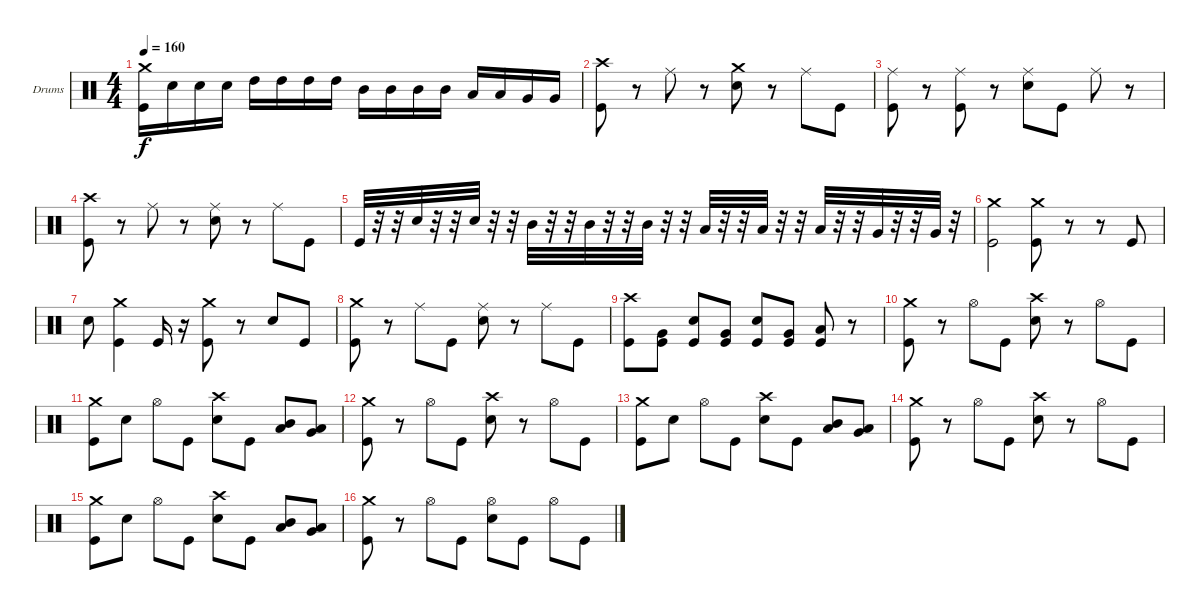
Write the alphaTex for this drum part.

\bracketExtendMode groupsimilarinstruments
\firstSystemTrackNameOrientation horizontal
\otherSystemsTrackNameOrientation horizontal
\track ("Drumkit" "Drums") {instrument percussion}
\staff {score}
\articulation defaults
\ts (4 4)
\tempo 160
\clef neutral
\ks c
("Crash medium (hit)" "Kick (hit)").16{dy f} "Snare (hit) 2".16 "Snare (hit) 2".16 "Snare (hit) 2".16 "High Tom (hit)".16 "High Tom (hit)".16 "High Tom (hit)".16 "High Tom (hit)".16 "Mid Tom (hit)".16 "Mid Tom (hit)".16 "Mid Tom (hit)".16 "Mid Tom (hit)".16 "Low Tom (hit)".16 "Low Tom (hit)".16 "Very Low Tom (hit)".16 "Very Low Tom (hit)".16 |
("Crash high (hit)" "Kick (hit)").8 r.8 "Ride (middle)".8 r.8 ("Crash medium (hit)" "Snare (hit) 2").8 r.8 "Ride (middle)".8 "Kick (hit)".8 |
("Ride (middle)" "Kick (hit)").8 r.8 ("Ride (middle)" "Kick (hit)").8 r.8 ("Ride (middle)" "Snare (hit) 2").8 "Kick (hit)".8 "Ride (middle)".8 r.8 |
("Crash high (hit)" "Kick (hit)").8 r.8 "Ride (middle)".8 r.8 ("Ride (middle)" "Snare (hit) 2").8 r.8 "Ride (middle)".8 "Kick (hit)".8 |
"Kick (hit)".32 r.32 r.32 "Snare (hit) 2".32 r.32 r.32 "Snare (hit) 2".32 r.32 r.32 "Mid Tom (hit)".32 r.32 r.32 "Mid Tom (hit)".32 r.32 r.32 "Mid Tom (hit)".32 r.32 r.32 "Low Tom (hit)".32 r.32 r.32 "Low Tom (hit)".32 r.32 r.32 "Low Tom (hit)".32 r.32 r.32 "Very Low Tom (hit)".32 r.32 r.32 "Very Low Tom (hit)".32 r.32 |
("Crash medium (hit)" "Kick (hit)").2 ("Crash medium (hit)" "Kick (hit)").8 r.8 r.8 "Kick (hit)".8 |
"Snare (hit) 2".8 ("Crash medium (hit)" "Kick (hit)").4 "Kick (hit)".16 r.16 ("Crash medium (hit)" "Kick (hit)").8 r.8 "Snare (hit) 2".8 "Kick (hit)".8 |
("Crash medium (hit)" "Kick (hit)").8 r.8 "Ride (middle)".8 "Kick (hit)".8 ("Ride (middle)" "Snare (hit) 2").8 r.8 "Ride (middle)".8 "Kick (hit)".8 |
("Crash high (hit)" "Kick (hit)").8 ("Very Low Tom (hit)" "Kick (hit)").8 ("Snare (hit) 2" "Kick (hit)").8 ("Very Low Tom (hit)" "Kick (hit)").8 ("Snare (hit) 2" "Kick (hit)").8 ("Very Low Tom (hit)" "Kick (hit)").8 ("Low Tom (hit)" "Kick (hit)").8 r.8 |
("Crash medium (hit)" "Kick (hit)").8 r.8 "Hi-Hat (open)".8 "Kick (hit)".8 ("Crash high (hit)" "Snare (hit) 2").8 r.8 "Hi-Hat (open)".8 "Kick (hit)".8 |
("Crash medium (hit)" "Kick (hit)").8 "Snare (hit) 2".8 "Hi-Hat (open)".8 "Kick (hit)".8 ("Crash high (hit)" "Snare (hit) 2").8 "Kick (hit)".8 ("Mid Tom (hit)" "Low Tom (hit)").8 ("Low Tom (hit)" "Very Low Tom (hit)").8 |
("Crash medium (hit)" "Kick (hit)").8 r.8 "Hi-Hat (open)".8 "Kick (hit)".8 ("Crash high (hit)" "Snare (hit) 2").8 r.8 "Hi-Hat (open)".8 "Kick (hit)".8 |
("Crash medium (hit)" "Kick (hit)").8 "Snare (hit) 2".8 "Hi-Hat (open)".8 "Kick (hit)".8 ("Crash high (hit)" "Snare (hit) 2").8 "Kick (hit)".8 ("Mid Tom (hit)" "Low Tom (hit)").8 ("Low Tom (hit)" "Very Low Tom (hit)").8 |
("Crash medium (hit)" "Kick (hit)").8 r.8 "Hi-Hat (open)".8 "Kick (hit)".8 ("Crash high (hit)" "Snare (hit) 2").8 r.8 "Hi-Hat (open)".8 "Kick (hit)".8 |
("Crash medium (hit)" "Kick (hit)").8 "Snare (hit) 2".8 "Hi-Hat (open)".8 "Kick (hit)".8 ("Crash high (hit)" "Snare (hit) 2").8 "Kick (hit)".8 ("Mid Tom (hit)" "Low Tom (hit)").8 ("Low Tom (hit)" "Very Low Tom (hit)").8 |
("Crash medium (hit)" "Kick (hit)").8 r.8 "Hi-Hat (open)".8 "Kick (hit)".8 ("Hi-Hat (open)" "Snare (hit) 2").8 "Kick (hit)".8 "Hi-Hat (open)".8 "Kick (hit)".8
